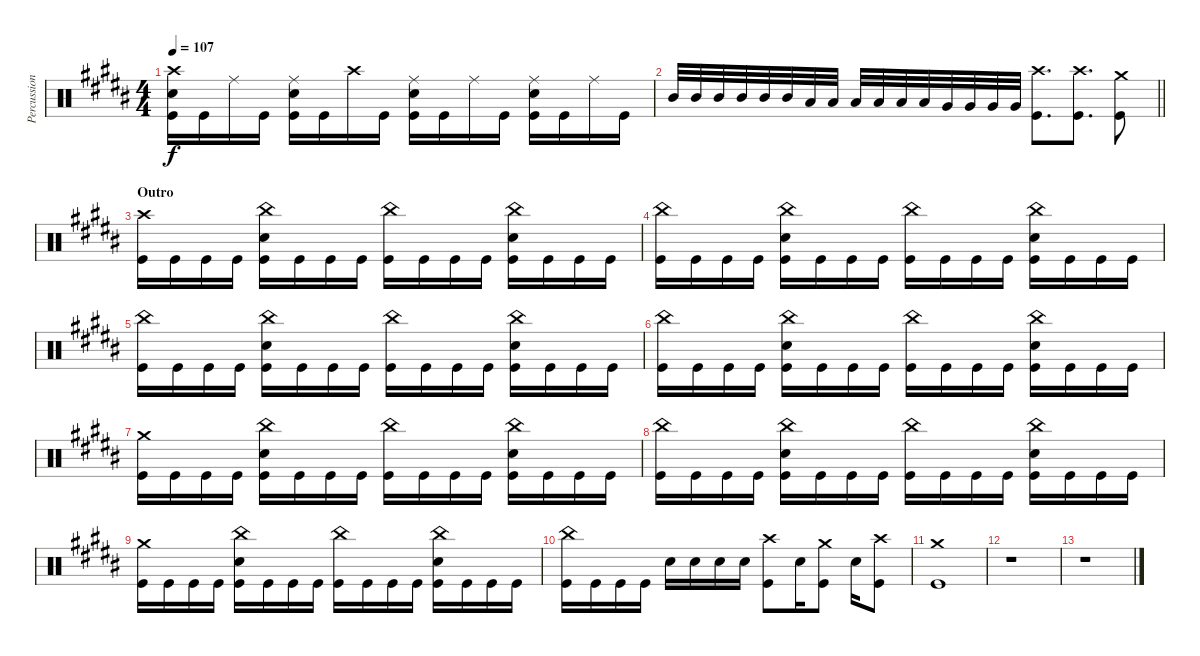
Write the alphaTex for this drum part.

\track ("Percussion" "Percussion") {instrument percussion}
\staff {score}
\articulation defaults
\ts (4 4)
\tempo 107
\clef neutral
\ks b
("Crash high (hit)" "Electric Snare (hit)" "Kick (hit)").16{dy f} "Kick (hit)".16 "Ride (middle)".16 "Kick (hit)".16 ("Ride (middle)" "Electric Snare (hit)" "Kick (hit)").16 "Kick (hit)".16 "Crash high (hit)".16 "Kick (hit)".16 ("Ride (middle)" "Electric Snare (hit)" "Kick (hit)").16 "Kick (hit)".16 "Ride (middle)".16 "Kick (hit)".16 ("Ride (middle)" "Electric Snare (hit)" "Kick (hit)").16 "Kick (hit)".16 "Ride (middle)".16 "Kick (hit)".16 |
\barLineRight lightlight "Mid Tom (hit)".32 "Mid Tom (hit)".32 "Mid Tom (hit)".32 "Mid Tom (hit)".32 "Mid Tom (hit)".32 "Mid Tom (hit)".32 "Low Tom (hit)".32 "Low Tom (hit)".32 "Low Tom (hit)".32 "Low Tom (hit)".32 "Low Tom (hit)".32 "Low Tom (hit)".32 "Very Low Tom (hit)".32 "Very Low Tom (hit)".32 "Very Low Tom (hit)".32 "Very Low Tom (hit)".32
("Crash high (hit)" "Kick (hit)").8{d} ("Crash high (hit)" "Kick (hit)").8{d} ("Crash medium (hit)" "Kick (hit)").8 |
\section ("" "Outro")
("Crash high (hit)" "Kick (hit)").16 "Kick (hit)".16 "Kick (hit)".16 "Kick (hit)".16 ("China (hit)" "Electric Snare (hit)" "Kick (hit)").16 "Kick (hit)".16 "Kick (hit)".16 "Kick (hit)".16 ("China (hit)" "Kick (hit)").16 "Kick (hit)".16 "Kick (hit)".16 "Kick (hit)".16 ("China (hit)" "Electric Snare (hit)" "Kick (hit)").16 "Kick (hit)".16 "Kick (hit)".16 "Kick (hit)".16 |
("China (hit)" "Kick (hit)").16 "Kick (hit)".16 "Kick (hit)".16 "Kick (hit)".16 ("China (hit)" "Electric Snare (hit)" "Kick (hit)").16 "Kick (hit)".16 "Kick (hit)".16 "Kick (hit)".16 ("China (hit)" "Kick (hit)").16 "Kick (hit)".16 "Kick (hit)".16 "Kick (hit)".16 ("China (hit)" "Electric Snare (hit)" "Kick (hit)").16 "Kick (hit)".16 "Kick (hit)".16 "Kick (hit)".16 |
("China (hit)" "Kick (hit)").16 "Kick (hit)".16 "Kick (hit)".16 "Kick (hit)".16 ("China (hit)" "Electric Snare (hit)" "Kick (hit)").16 "Kick (hit)".16 "Kick (hit)".16 "Kick (hit)".16 ("China (hit)" "Kick (hit)").16 "Kick (hit)".16 "Kick (hit)".16 "Kick (hit)".16 ("China (hit)" "Electric Snare (hit)" "Kick (hit)").16 "Kick (hit)".16 "Kick (hit)".16 "Kick (hit)".16 |
("China (hit)" "Kick (hit)").16 "Kick (hit)".16 "Kick (hit)".16 "Kick (hit)".16 ("China (hit)" "Electric Snare (hit)" "Kick (hit)").16 "Kick (hit)".16 "Kick (hit)".16 "Kick (hit)".16 ("China (hit)" "Kick (hit)").16 "Kick (hit)".16 "Kick (hit)".16 "Kick (hit)".16 ("China (hit)" "Electric Snare (hit)" "Kick (hit)").16 "Kick (hit)".16 "Kick (hit)".16 "Kick (hit)".16 |
("Crash medium (hit)" "Kick (hit)").16 "Kick (hit)".16 "Kick (hit)".16 "Kick (hit)".16 ("China (hit)" "Electric Snare (hit)" "Kick (hit)").16 "Kick (hit)".16 "Kick (hit)".16 "Kick (hit)".16 ("China (hit)" "Kick (hit)").16 "Kick (hit)".16 "Kick (hit)".16 "Kick (hit)".16 ("China (hit)" "Electric Snare (hit)" "Kick (hit)").16 "Kick (hit)".16 "Kick (hit)".16 "Kick (hit)".16 |
("China (hit)" "Kick (hit)").16 "Kick (hit)".16 "Kick (hit)".16 "Kick (hit)".16 ("China (hit)" "Electric Snare (hit)" "Kick (hit)").16 "Kick (hit)".16 "Kick (hit)".16 "Kick (hit)".16 ("China (hit)" "Kick (hit)").16 "Kick (hit)".16 "Kick (hit)".16 "Kick (hit)".16 ("China (hit)" "Electric Snare (hit)" "Kick (hit)").16 "Kick (hit)".16 "Kick (hit)".16 "Kick (hit)".16 |
("Crash medium (hit)" "Kick (hit)").16 "Kick (hit)".16 "Kick (hit)".16 "Kick (hit)".16 ("China (hit)" "Electric Snare (hit)" "Kick (hit)").16 "Kick (hit)".16 "Kick (hit)".16 "Kick (hit)".16 ("China (hit)" "Kick (hit)").16 "Kick (hit)".16 "Kick (hit)".16 "Kick (hit)".16 ("China (hit)" "Electric Snare (hit)" "Kick (hit)").16 "Kick (hit)".16 "Kick (hit)".16 "Kick (hit)".16 |
("China (hit)" "Kick (hit)").16 "Kick (hit)".16 "Kick (hit)".16 "Kick (hit)".16 "Electric Snare (hit)".16 "Electric Snare (hit)".16 "Electric Snare (hit)".16 "Electric Snare (hit)".16 ("Crash high (hit)" "Kick (hit)").8 "Electric Snare (hit)".16 ("Crash medium (hit)" "Kick (hit)").8 "Electric Snare (hit)".16 ("Crash high (hit)" "Kick (hit)").8 |
("Crash medium (hit)" "Kick (hit)").1 |
r.1 |
r.1
